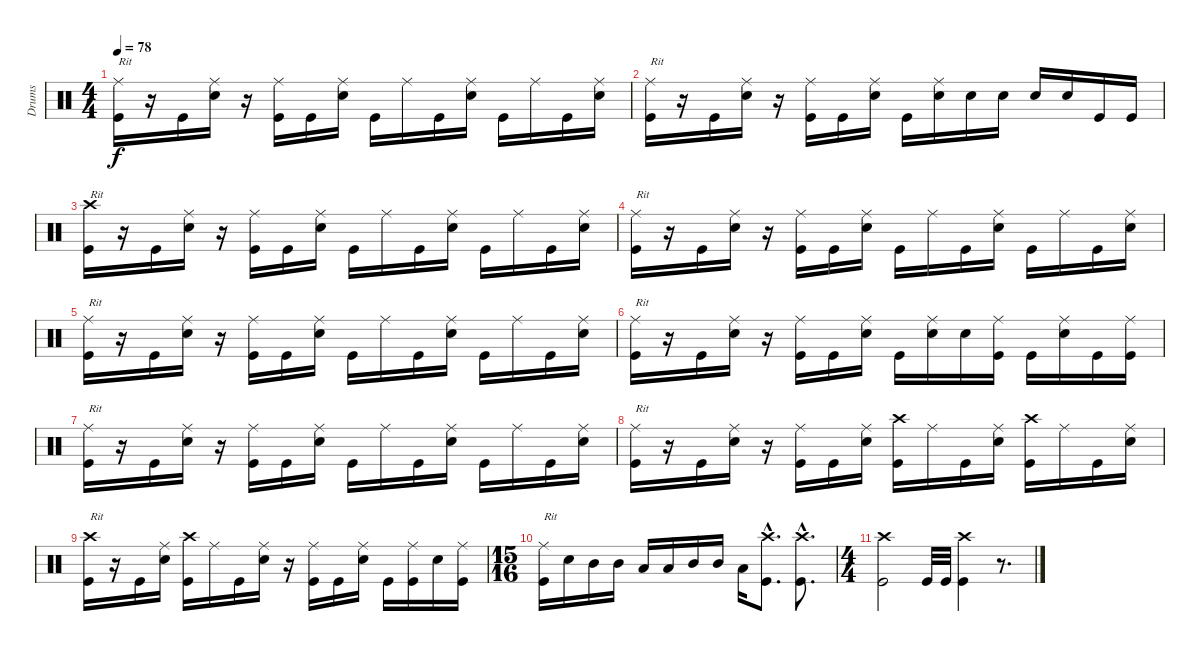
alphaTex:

\track ("Drums" "Drums") {instrument percussion}
\staff {score}
\articulation defaults
\ts (4 4)
\tempo 78
\clef neutral
\ks c
("Ride (middle)" "Kick (hit)").16{txt "Rit" dy f} r.16 "Kick (hit)".16 ("Ride (middle)" "Snare (hit) 2").16 r.16 ("Ride (middle)" "Kick (hit)").16 "Kick (hit)".16 ("Ride (middle)" "Snare (hit) 2").16 "Kick (hit)".16 "Ride (middle)".16 "Kick (hit)".16 ("Ride (middle)" "Snare (hit) 2").16 "Kick (hit)".16 "Ride (middle)".16 "Kick (hit)".16 ("Ride (middle)" "Snare (hit) 2").16 |
("Ride (middle)" "Kick (hit)").16{txt "Rit"} r.16 "Kick (hit)".16 ("Ride (middle)" "Snare (hit) 2").16 r.16 ("Ride (middle)" "Kick (hit)").16 "Kick (hit)".16 ("Ride (middle)" "Snare (hit) 2").16 "Kick (hit)".16 ("Ride (middle)" "Snare (hit) 2").16 "Snare (hit) 2".16 "Snare (hit) 2".16 "Snare (hit) 2".16 "Snare (hit) 2".16 "Kick (hit)".16 "Kick (hit)".16 |
("Crash high (hit)" "Kick (hit)").16{txt "Rit"} r.16 "Kick (hit)".16 ("Ride (middle)" "Snare (hit) 2").16 r.16 ("Ride (middle)" "Kick (hit)").16 "Kick (hit)".16 ("Ride (middle)" "Snare (hit) 2").16 "Kick (hit)".16 "Ride (middle)".16 "Kick (hit)".16 ("Ride (middle)" "Snare (hit) 2").16 "Kick (hit)".16 "Ride (middle)".16 "Kick (hit)".16 ("Ride (middle)" "Snare (hit) 2").16 |
("Ride (middle)" "Kick (hit)").16{txt "Rit"} r.16 "Kick (hit)".16 ("Ride (middle)" "Snare (hit) 2").16 r.16 ("Ride (middle)" "Kick (hit)").16 "Kick (hit)".16 ("Ride (middle)" "Snare (hit) 2").16 "Kick (hit)".16 "Ride (middle)".16 "Kick (hit)".16 ("Ride (middle)" "Snare (hit) 2").16 "Kick (hit)".16 "Ride (middle)".16 "Kick (hit)".16 ("Ride (middle)" "Snare (hit) 2").16 |
("Ride (middle)" "Kick (hit)").16{txt "Rit"} r.16 "Kick (hit)".16 ("Ride (middle)" "Snare (hit) 2").16 r.16 ("Ride (middle)" "Kick (hit)").16 "Kick (hit)".16 ("Ride (middle)" "Snare (hit) 2").16 "Kick (hit)".16 "Ride (middle)".16 "Kick (hit)".16 ("Ride (middle)" "Snare (hit) 2").16 "Kick (hit)".16 "Ride (middle)".16 "Kick (hit)".16 ("Ride (middle)" "Snare (hit) 2").16 |
("Ride (middle)" "Kick (hit)").16{txt "Rit"} r.16 "Kick (hit)".16 ("Ride (middle)" "Snare (hit) 2").16 r.16 ("Ride (middle)" "Kick (hit)").16 "Kick (hit)".16 ("Ride (middle)" "Snare (hit) 2").16 "Kick (hit)".16 ("Ride (middle)" "Snare (hit) 2").16 "Snare (hit) 2".16 ("Ride (middle)" "Kick (hit)").16 "Kick (hit)".16 ("Ride (middle)" "Snare (hit) 2").16 "Kick (hit)".16 ("Ride (middle)" "Kick (hit)").16 |
("Ride (middle)" "Kick (hit)").16{txt "Rit"} r.16 "Kick (hit)".16 ("Ride (middle)" "Snare (hit) 2").16 r.16 ("Ride (middle)" "Kick (hit)").16 "Kick (hit)".16 ("Ride (middle)" "Snare (hit) 2").16 "Kick (hit)".16 "Ride (middle)".16 "Kick (hit)".16 ("Ride (middle)" "Snare (hit) 2").16 "Kick (hit)".16 "Ride (middle)".16 "Kick (hit)".16 ("Ride (middle)" "Snare (hit) 2").16 |
("Ride (middle)" "Kick (hit)").16{txt "Rit"} r.16 "Kick (hit)".16 ("Ride (middle)" "Snare (hit) 2").16 r.16 ("Ride (middle)" "Kick (hit)").16 "Kick (hit)".16 ("Ride (middle)" "Snare (hit) 2").16 ("Crash high (hit)" "Kick (hit)").16 "Ride (middle)".16 "Kick (hit)".16 ("Ride (middle)" "Snare (hit) 2").16 ("Crash high (hit)" "Kick (hit)").16 "Ride (middle)".16 "Kick (hit)".16 ("Ride (middle)" "Snare (hit) 2").16 |
("Crash high (hit)" "Kick (hit)").16{txt "Rit"} r.16 "Kick (hit)".16 ("Ride (middle)" "Snare (hit) 2").16 ("Crash high (hit)" "Kick (hit)").16 "Ride (middle)".16 "Kick (hit)".16 ("Ride (middle)" "Snare (hit) 2").16 r.16 ("Ride (middle)" "Kick (hit)").16 "Kick (hit)".16 ("Ride (middle)" "Snare (hit) 2").16 "Kick (hit)".16 ("Ride (middle)" "Kick (hit)").16 "Snare (hit) 2".16 ("Ride (middle)" "Kick (hit)").16 |
\ts (15 16)
("Ride (middle)" "Kick (hit)").16{txt "Rit"} "Snare (hit) 2".16 "Mid Tom (hit)".16 "Mid Tom (hit)".16 "Low Tom (hit)".16 "Low Tom (hit)".16 "Mid Tom (hit)".16 "Mid Tom (hit)".16 "Low Tom (hit)".16 ("Crash high (hit)"{hac} "Kick (hit)"{hac}).8{d} ("Crash high (hit)"{hac} "Kick (hit)"{hac}).8{d} |
\ts (4 4)
("Crash high (hit)" "Kick (hit)").2 "Kick (hit)".32 "Kick (hit)".32 ("Crash high (hit)" "Kick (hit)").4 r.8{d}
